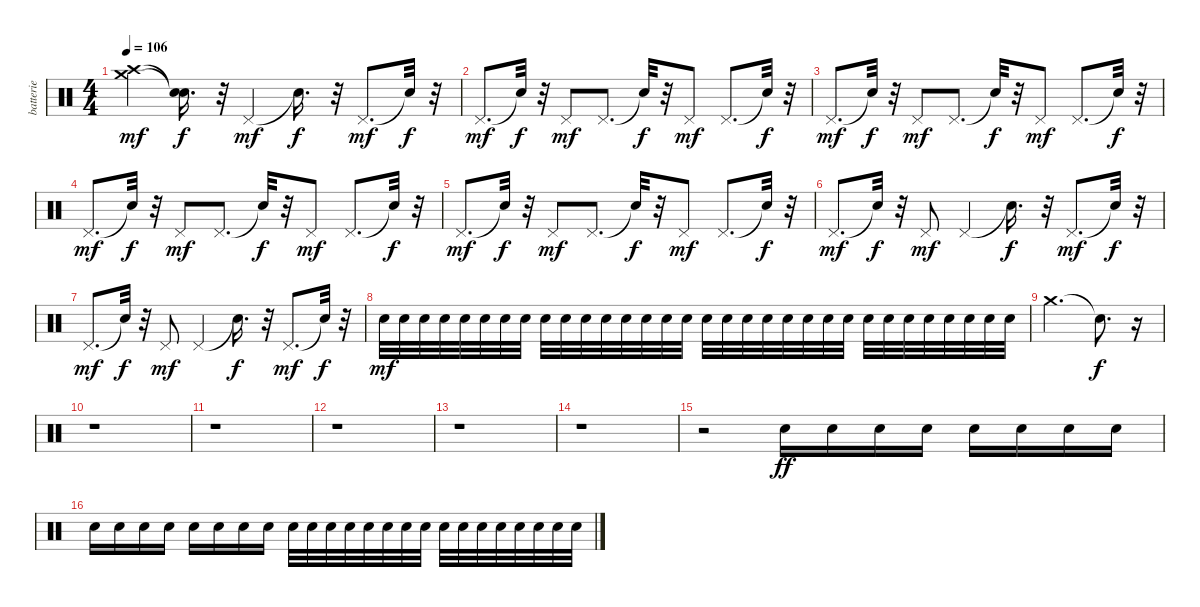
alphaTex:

\track ("batterie" "batterie") {instrument percussion}
\staff {score}
\articulation defaults
\ts (4 4)
\tempo 106
\clef neutral
\ks c
("Crash high (hit)" "Crash medium (hit)").4{dy mf} ("Snare (hit)"{t} "Snare (hit)"{t}).16{d dy f} r.32 "Pedal Hi-Hat (hit)".4{dy mf} "Snare (hit)"{t}.16{d dy f} r.32 "Pedal Hi-Hat (hit)".8{d dy mf} "Snare (hit)"{t}.32{dy f} r.32 |
"Pedal Hi-Hat (hit)".8{d dy mf} "Snare (hit)"{t}.32{dy f} r.32 "Pedal Hi-Hat (hit)".8{dy mf} "Pedal Hi-Hat (hit)".8{d} "Snare (hit)"{t}.32{dy f} r.32 "Pedal Hi-Hat (hit)".8{dy mf} "Pedal Hi-Hat (hit)".8{d} "Snare (hit)"{t}.32{dy f} r.32 |
"Pedal Hi-Hat (hit)".8{d dy mf} "Snare (hit)"{t}.32{dy f} r.32 "Pedal Hi-Hat (hit)".8{dy mf} "Pedal Hi-Hat (hit)".8{d} "Snare (hit)"{t}.32{dy f} r.32 "Pedal Hi-Hat (hit)".8{dy mf} "Pedal Hi-Hat (hit)".8{d} "Snare (hit)"{t}.32{dy f} r.32 |
"Pedal Hi-Hat (hit)".8{d dy mf} "Snare (hit)"{t}.32{dy f} r.32 "Pedal Hi-Hat (hit)".8{dy mf} "Pedal Hi-Hat (hit)".8{d} "Snare (hit)"{t}.32{dy f} r.32 "Pedal Hi-Hat (hit)".8{dy mf} "Pedal Hi-Hat (hit)".8{d} "Snare (hit)"{t}.32{dy f} r.32 |
"Pedal Hi-Hat (hit)".8{d dy mf} "Snare (hit)"{t}.32{dy f} r.32 "Pedal Hi-Hat (hit)".8{dy mf} "Pedal Hi-Hat (hit)".8{d} "Snare (hit)"{t}.32{dy f} r.32 "Pedal Hi-Hat (hit)".8{dy mf} "Pedal Hi-Hat (hit)".8{d} "Snare (hit)"{t}.32{dy f} r.32 |
"Pedal Hi-Hat (hit)".8{d dy mf} "Snare (hit)"{t}.32{dy f} r.32 "Pedal Hi-Hat (hit)".8{dy mf} "Pedal Hi-Hat (hit)".4 "Snare (hit)"{t}.16{d dy f} r.32 "Pedal Hi-Hat (hit)".8{d dy mf} "Snare (hit)"{t}.32{dy f} r.32 |
"Pedal Hi-Hat (hit)".8{d dy mf} "Snare (hit)"{t}.32{dy f} r.32 "Pedal Hi-Hat (hit)".8{dy mf} "Pedal Hi-Hat (hit)".4 "Snare (hit)"{t}.16{d dy f} r.32 "Pedal Hi-Hat (hit)".8{d dy mf} "Snare (hit)"{t}.32{dy f} r.32 |
"Electric Snare (hit)".32{dy mf volume 3} "Electric Snare (hit)".32{volume 4} "Electric Snare (hit)".32{volume 4} "Electric Snare (hit)".32{volume 5} "Electric Snare (hit)".32{volume 6} "Electric Snare (hit)".32{volume 7} "Electric Snare (hit)".32{volume 8} "Electric Snare (hit)".32{volume 8} "Electric Snare (hit)".32{volume 9} "Electric Snare (hit)".32{volume 10} "Electric Snare (hit)".32{volume 11} "Electric Snare (hit)".32{volume 12} "Electric Snare (hit)".32{volume 13} "Electric Snare (hit)".32{volume 13} "Electric Snare (hit)".32{volume 14} "Electric Snare (hit)".32{volume 15} "Electric Snare (hit)".32{volume 16} "Electric Snare (hit)".32 "Electric Snare (hit)".32 "Electric Snare (hit)".32 "Electric Snare (hit)".32 "Electric Snare (hit)".32 "Electric Snare (hit)".32 "Electric Snare (hit)".32 "Electric Snare (hit)".32 "Electric Snare (hit)".32 "Electric Snare (hit)".32 "Electric Snare (hit)".32 "Electric Snare (hit)".32 "Electric Snare (hit)".32 "Electric Snare (hit)".32 "Electric Snare (hit)".32 |
"Crash medium (hit)".2{d} "Snare (hit)"{t}.8{d dy f} r.16 |
r.1 |
r.1 |
r.1 |
r.1 |
r.1 |
r.2 "Electric Snare (hit)".16{dy ff volume 4} "Electric Snare (hit)".16{volume 4} "Electric Snare (hit)".16{volume 5} "Electric Snare (hit)".16{volume 6} "Electric Snare (hit)".16{volume 7} "Electric Snare (hit)".16{volume 8} "Electric Snare (hit)".16{volume 8} "Electric Snare (hit)".16{volume 9} |
"Electric Snare (hit)".16{volume 10} "Electric Snare (hit)".16{volume 10} "Electric Snare (hit)".16{volume 11} "Electric Snare (hit)".16{volume 12} "Electric Snare (hit)".16{volume 13} "Electric Snare (hit)".16{volume 14} "Electric Snare (hit)".16{volume 14} "Electric Snare (hit)".16{volume 15} "Electric Snare (hit)".32{volume 16} "Electric Snare (hit)".32 "Electric Snare (hit)".32 "Electric Snare (hit)".32 "Electric Snare (hit)".32 "Electric Snare (hit)".32 "Electric Snare (hit)".32 "Electric Snare (hit)".32 "Electric Snare (hit)".32 "Electric Snare (hit)".32 "Electric Snare (hit)".32 "Electric Snare (hit)".32 "Electric Snare (hit)".32 "Electric Snare (hit)".32 "Electric Snare (hit)".32 "Electric Snare (hit)".32
